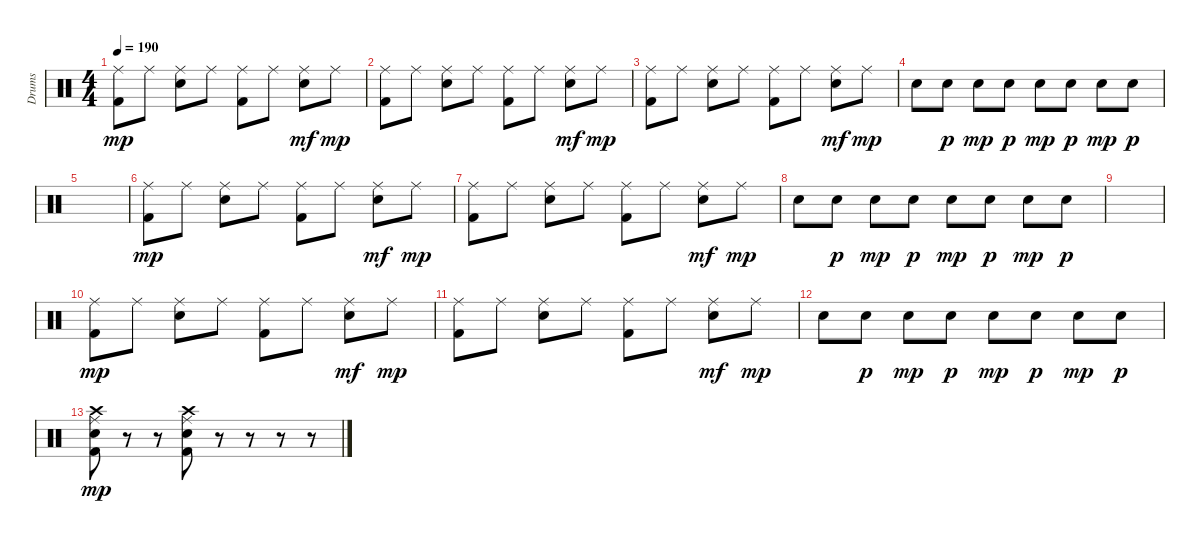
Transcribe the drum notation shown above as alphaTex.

\track ("Drums" "Drums") {instrument percussion}
\staff {score}
\articulation defaults
\ts (4 4)
\tempo 190
\clef neutral
\ks c
("Ride (middle)" "Kick (hit) 2").8{dy mp} "Ride (middle)".8 ("Ride (middle)" "Electric Snare (hit)").8 "Ride (middle)".8 ("Ride (middle)" "Kick (hit) 2").8 "Ride (middle)".8 ("Ride (middle)" "Electric Snare (hit)").8{dy mf} "Ride (middle)".8{dy mp} |
("Ride (middle)" "Kick (hit) 2").8 "Ride (middle)".8 ("Ride (middle)" "Electric Snare (hit)").8 "Ride (middle)".8 ("Ride (middle)" "Kick (hit) 2").8 "Ride (middle)".8 ("Ride (middle)" "Electric Snare (hit)").8{dy mf} "Ride (middle)".8{dy mp} |
("Ride (middle)" "Kick (hit) 2").8 "Ride (middle)".8 ("Ride (middle)" "Electric Snare (hit)").8 "Ride (middle)".8 ("Ride (middle)" "Kick (hit) 2").8 "Ride (middle)".8 ("Ride (middle)" "Electric Snare (hit)").8{dy mf} "Ride (middle)".8{dy mp} |
"Electric Snare (hit)".8 "Electric Snare (hit)".8{dy p} "Electric Snare (hit)".8{dy mp} "Electric Snare (hit)".8{dy p} "Electric Snare (hit)".8{dy mp} "Electric Snare (hit)".8{dy p} "Electric Snare (hit)".8{dy mp} "Electric Snare (hit)".8{dy p} |
|
("Ride (middle)" "Kick (hit) 2").8{dy mp} "Ride (middle)".8 ("Ride (middle)" "Electric Snare (hit)").8 "Ride (middle)".8 ("Ride (middle)" "Kick (hit) 2").8 "Ride (middle)".8 ("Ride (middle)" "Electric Snare (hit)").8{dy mf} "Ride (middle)".8{dy mp} |
("Ride (middle)" "Kick (hit) 2").8 "Ride (middle)".8 ("Ride (middle)" "Electric Snare (hit)").8 "Ride (middle)".8 ("Ride (middle)" "Kick (hit) 2").8 "Ride (middle)".8 ("Ride (middle)" "Electric Snare (hit)").8{dy mf} "Ride (middle)".8{dy mp} |
"Electric Snare (hit)".8 "Electric Snare (hit)".8{dy p} "Electric Snare (hit)".8{dy mp} "Electric Snare (hit)".8{dy p} "Electric Snare (hit)".8{dy mp} "Electric Snare (hit)".8{dy p} "Electric Snare (hit)".8{dy mp} "Electric Snare (hit)".8{dy p} |
|
("Ride (middle)" "Kick (hit) 2").8{dy mp} "Ride (middle)".8 ("Ride (middle)" "Electric Snare (hit)").8 "Ride (middle)".8 ("Ride (middle)" "Kick (hit) 2").8 "Ride (middle)".8 ("Ride (middle)" "Electric Snare (hit)").8{dy mf} "Ride (middle)".8{dy mp} |
("Ride (middle)" "Kick (hit) 2").8 "Ride (middle)".8 ("Ride (middle)" "Electric Snare (hit)").8 "Ride (middle)".8 ("Ride (middle)" "Kick (hit) 2").8 "Ride (middle)".8 ("Ride (middle)" "Electric Snare (hit)").8{dy mf} "Ride (middle)".8{dy mp} |
"Electric Snare (hit)".8 "Electric Snare (hit)".8{dy p} "Electric Snare (hit)".8{dy mp} "Electric Snare (hit)".8{dy p} "Electric Snare (hit)".8{dy mp} "Electric Snare (hit)".8{dy p} "Electric Snare (hit)".8{dy mp} "Electric Snare (hit)".8{dy p} |
("Ride (middle)" "Crash high (hit)" "Electric Snare (hit)" "Kick (hit) 2").8{dy mp} r.8 r.8 ("Ride (middle)" "Crash high (hit)" "Electric Snare (hit)" "Kick (hit) 2").8 r.8 r.8 r.8 r.8
